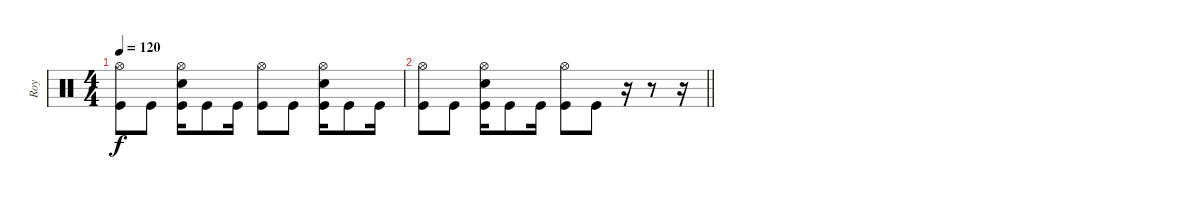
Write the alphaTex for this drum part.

\track ("Roy" "Roy") {instrument percussion}
\staff {score}
\articulation defaults
\ts (4 4)
\tempo 120
\clef neutral
\ks c
("Hi-Hat (open)" "Kick (hit)").8{dy f} "Kick (hit)".8 ("Hi-Hat (open)" "Electric Snare (hit)" "Kick (hit)").16 "Kick (hit)".8 "Kick (hit)".16 ("Hi-Hat (open)" "Kick (hit)").8 "Kick (hit)".8 ("Hi-Hat (open)" "Electric Snare (hit)" "Kick (hit)").16 "Kick (hit)".8 "Kick (hit)".16 |
\barLineRight lightlight
("Hi-Hat (open)" "Kick (hit)").8 "Kick (hit)".8 ("Hi-Hat (open)" "Electric Snare (hit)" "Kick (hit)").16 "Kick (hit)".8 "Kick (hit)".16 ("Hi-Hat (open)" "Kick (hit)").8 "Kick (hit)".8 r.16 r.8 r.16
